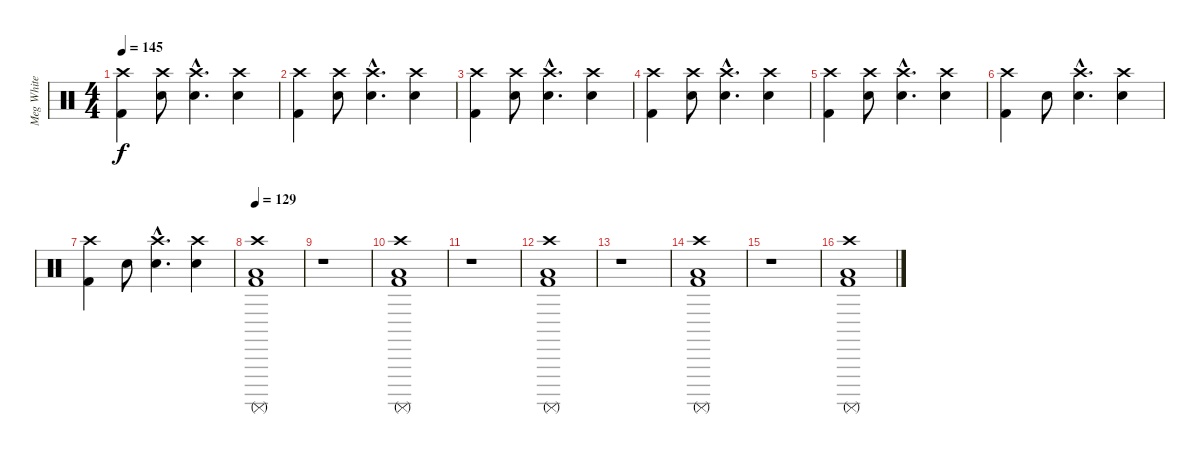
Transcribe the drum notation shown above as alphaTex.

\track ("Meg White" "Meg White") {instrument percussion}
\staff {score}
\articulation defaults
\ts (4 4)
\tempo 145
\clef neutral
\ks c
("Crash high (hit)" "Kick (hit) 2").4{dy f} ("Crash high (hit)" "Electric Snare (hit)").8 ("Crash high (hit)"{hac} "Electric Snare (hit)"{hac}).4{d} ("Crash high (hit)" "Electric Snare (hit)").4 |
("Crash high (hit)" "Kick (hit) 2").4 ("Crash high (hit)" "Electric Snare (hit)").8 ("Crash high (hit)"{hac} "Electric Snare (hit)"{hac}).4{d} ("Crash high (hit)" "Electric Snare (hit)").4 |
("Crash high (hit)" "Kick (hit) 2").4 ("Crash high (hit)" "Electric Snare (hit)").8 ("Crash high (hit)"{hac} "Electric Snare (hit)"{hac}).4{d} ("Crash high (hit)" "Electric Snare (hit)").4 |
("Crash high (hit)" "Kick (hit) 2").4 ("Crash high (hit)" "Electric Snare (hit)").8 ("Crash high (hit)"{hac} "Electric Snare (hit)"{hac}).4{d} ("Crash high (hit)" "Electric Snare (hit)").4 |
("Crash high (hit)" "Kick (hit) 2").4 ("Crash high (hit)" "Electric Snare (hit)").8 ("Crash high (hit)"{hac} "Electric Snare (hit)"{hac}).4{d} ("Crash high (hit)" "Electric Snare (hit)").4 |
("Crash high (hit)" "Kick (hit) 2").4 "Electric Snare (hit)".8 ("Crash high (hit)"{hac} "Electric Snare (hit)"{hac}).4{d} ("Crash high (hit)" "Electric Snare (hit)").4 |
("Crash high (hit)" "Kick (hit) 2").4 "Electric Snare (hit)".8 ("Crash high (hit)"{hac} "Electric Snare (hit)"{hac}).4{d} ("Crash high (hit)" "Electric Snare (hit)").4 |
\tempo 129
("Crash high (hit)" "Low Tom (hit)" "Surdo (mute)" "Kick (hit) 2").1 |
r.1 |
("Crash high (hit)" "Low Tom (hit)" "Surdo (mute)" "Kick (hit) 2").1 |
r.1 |
("Crash high (hit)" "Low Tom (hit)" "Surdo (mute)" "Kick (hit) 2").1 |
r.1 |
("Crash high (hit)" "Low Tom (hit)" "Surdo (mute)" "Kick (hit) 2").1 |
r.1 |
("Crash high (hit)" "Low Tom (hit)" "Surdo (mute)" "Kick (hit) 2").1
